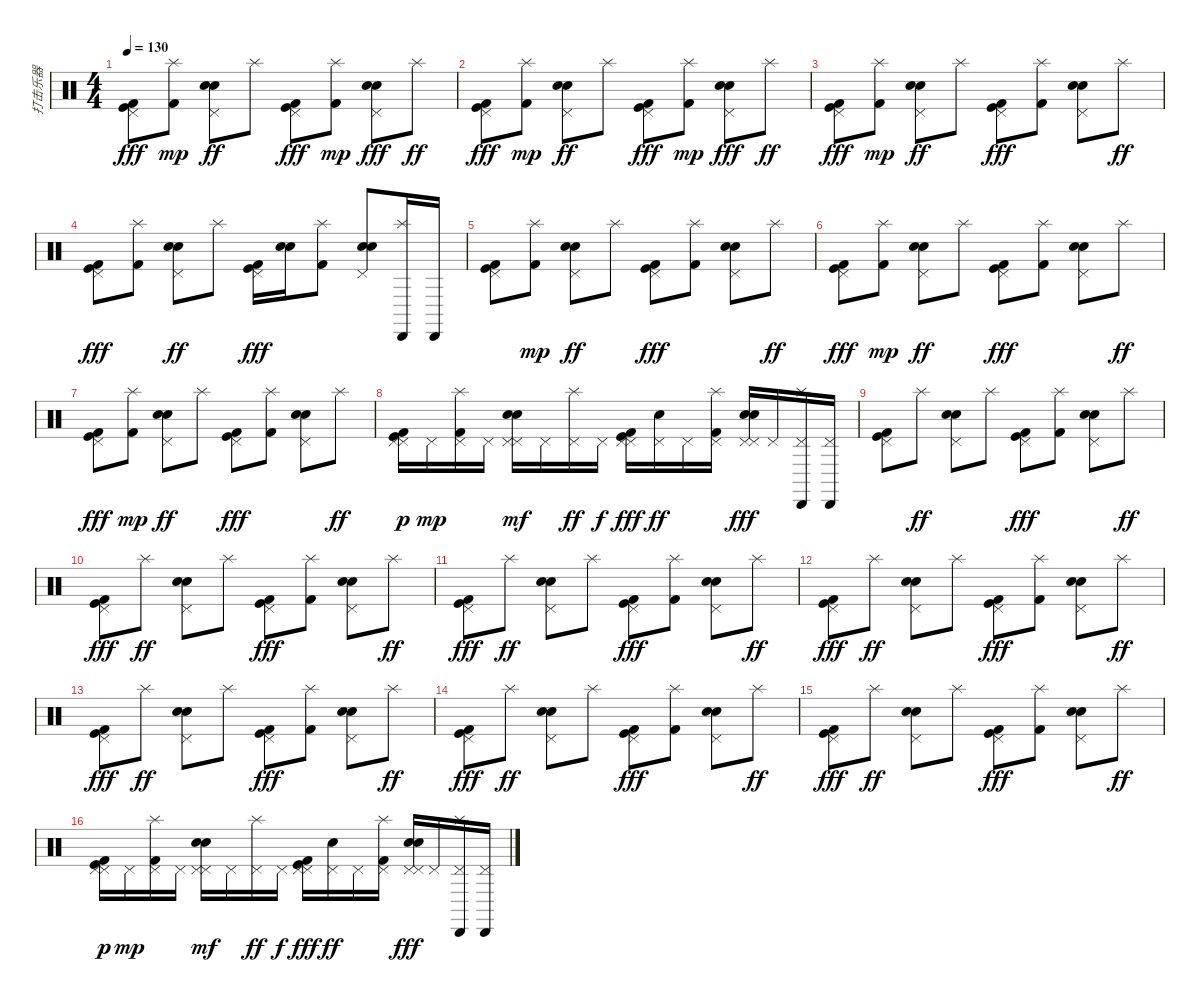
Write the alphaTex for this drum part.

\track ("打击乐器" "打击乐器") {instrument percussion}
\staff {score}
\articulation defaults
\ts (4 4)
\tempo 130
\clef neutral
\ks c
("Pedal Hi-Hat (hit)" "Kick (hit)" "Kick (hit) 2").8{dy fff} ("Splash (hit)" "Kick (hit) 2").8{dy mp} ("Pedal Hi-Hat (hit)" "Electric Snare (hit)" "Snare (hit) 2").8{dy ff} "Splash (hit)".8 ("Pedal Hi-Hat (hit)" "Kick (hit)" "Kick (hit) 2").8{dy fff} ("Splash (hit)" "Kick (hit) 2").8{dy mp} ("Pedal Hi-Hat (hit)" "Electric Snare (hit)" "Snare (hit) 2").8{dy fff} "Splash (hit)".8{dy ff} |
("Pedal Hi-Hat (hit)" "Kick (hit)" "Kick (hit) 2").8{dy fff} ("Splash (hit)" "Kick (hit) 2").8{dy mp} ("Pedal Hi-Hat (hit)" "Electric Snare (hit)" "Snare (hit) 2").8{dy ff} "Splash (hit)".8 ("Pedal Hi-Hat (hit)" "Kick (hit)" "Kick (hit) 2").8{dy fff} ("Splash (hit)" "Kick (hit) 2").8{dy mp} ("Pedal Hi-Hat (hit)" "Electric Snare (hit)" "Snare (hit) 2").8{dy fff} "Splash (hit)".8{dy ff} |
("Pedal Hi-Hat (hit)" "Kick (hit)" "Kick (hit) 2").8{dy fff} ("Splash (hit)" "Kick (hit) 2").8{dy mp} ("Pedal Hi-Hat (hit)" "Electric Snare (hit)" "Snare (hit) 2").8{dy ff} "Splash (hit)".8 ("Pedal Hi-Hat (hit)" "Kick (hit)" "Kick (hit) 2").8{dy fff} ("Splash (hit)" "Kick (hit) 2").8 ("Pedal Hi-Hat (hit)" "Electric Snare (hit)" "Snare (hit) 2").8 "Splash (hit)".8{dy ff} |
("Pedal Hi-Hat (hit)" "Kick (hit)" "Kick (hit) 2").8{dy fff} ("Splash (hit)" "Kick (hit) 2").8 ("Pedal Hi-Hat (hit)" "Electric Snare (hit)" "Snare (hit) 2").8{dy ff} "Splash (hit)".8 ("Pedal Hi-Hat (hit)" "Kick (hit)" "Kick (hit) 2").16{dy fff} ("Electric Snare (hit)" "Snare (hit) 2").16 ("Splash (hit)" "Kick (hit) 2").8 ("Pedal Hi-Hat (hit)" "Electric Snare (hit)" "Snare (hit) 2").8 ("Splash (hit)" "Cabasa (hit)").16 "Cabasa (hit)".16 |
("Pedal Hi-Hat (hit)" "Kick (hit)" "Kick (hit) 2").8 ("Splash (hit)" "Kick (hit) 2").8{dy mp} ("Pedal Hi-Hat (hit)" "Electric Snare (hit)" "Snare (hit) 2").8{dy ff} "Splash (hit)".8 ("Pedal Hi-Hat (hit)" "Kick (hit)" "Kick (hit) 2").8{dy fff} ("Splash (hit)" "Kick (hit) 2").8 ("Pedal Hi-Hat (hit)" "Electric Snare (hit)" "Snare (hit) 2").8 "Splash (hit)".8{dy ff} |
("Pedal Hi-Hat (hit)" "Kick (hit)" "Kick (hit) 2").8{dy fff} ("Splash (hit)" "Kick (hit) 2").8{dy mp} ("Pedal Hi-Hat (hit)" "Electric Snare (hit)" "Snare (hit) 2").8{dy ff} "Splash (hit)".8 ("Pedal Hi-Hat (hit)" "Kick (hit)" "Kick (hit) 2").8{dy fff} ("Splash (hit)" "Kick (hit) 2").8 ("Pedal Hi-Hat (hit)" "Electric Snare (hit)" "Snare (hit) 2").8 "Splash (hit)".8{dy ff} |
("Pedal Hi-Hat (hit)" "Kick (hit)" "Kick (hit) 2").8{dy fff} ("Splash (hit)" "Kick (hit) 2").8{dy mp} ("Pedal Hi-Hat (hit)" "Electric Snare (hit)" "Snare (hit) 2").8{dy ff} "Splash (hit)".8 ("Pedal Hi-Hat (hit)" "Kick (hit)" "Kick (hit) 2").8{dy fff} ("Splash (hit)" "Kick (hit) 2").8 ("Pedal Hi-Hat (hit)" "Electric Snare (hit)" "Snare (hit) 2").8 "Splash (hit)".8{dy ff} |
("Pedal Hi-Hat (hit)" "Kick (hit)" "Kick (hit) 2" "Pedal Hi-Hat (hit)").16{dy p} "Pedal Hi-Hat (hit)".16{dy mp} ("Splash (hit)" "Kick (hit) 2" "Pedal Hi-Hat (hit)").16 "Pedal Hi-Hat (hit)".16 ("Pedal Hi-Hat (hit)" "Electric Snare (hit)" "Snare (hit) 2" "Pedal Hi-Hat (hit)").16{dy mf} "Pedal Hi-Hat (hit)".16 ("Splash (hit)" "Pedal Hi-Hat (hit)").16{dy ff} "Pedal Hi-Hat (hit)".16{dy f} ("Pedal Hi-Hat (hit)" "Kick (hit)" "Kick (hit) 2" "Pedal Hi-Hat (hit)").16{dy fff} ("Electric Snare (hit)" "Pedal Hi-Hat (hit)").16{dy ff} "Pedal Hi-Hat (hit)".16 ("Splash (hit)" "Kick (hit) 2" "Pedal Hi-Hat (hit)").16 ("Pedal Hi-Hat (hit)" "Electric Snare (hit)" "Snare (hit) 2" "Pedal Hi-Hat (hit)").16{dy fff} "Pedal Hi-Hat (hit)".16 ("Splash (hit)" "Cabasa (hit)" "Pedal Hi-Hat (hit)").16 ("Cabasa (hit)" "Pedal Hi-Hat (hit)").16 |
("Pedal Hi-Hat (hit)" "Kick (hit)" "Kick (hit) 2").8 "Splash (hit)".8{dy ff} ("Pedal Hi-Hat (hit)" "Electric Snare (hit)" "Snare (hit) 2").8 "Splash (hit)".8 ("Pedal Hi-Hat (hit)" "Kick (hit)" "Kick (hit) 2").8{dy fff} ("Splash (hit)" "Kick (hit) 2").8 ("Pedal Hi-Hat (hit)" "Electric Snare (hit)" "Snare (hit) 2").8 "Splash (hit)".8{dy ff} |
("Pedal Hi-Hat (hit)" "Kick (hit)" "Kick (hit) 2").8{dy fff} "Splash (hit)".8{dy ff} ("Pedal Hi-Hat (hit)" "Electric Snare (hit)" "Snare (hit) 2").8 "Splash (hit)".8 ("Pedal Hi-Hat (hit)" "Kick (hit)" "Kick (hit) 2").8{dy fff} ("Splash (hit)" "Kick (hit) 2").8 ("Pedal Hi-Hat (hit)" "Electric Snare (hit)" "Snare (hit) 2").8 "Splash (hit)".8{dy ff} |
("Pedal Hi-Hat (hit)" "Kick (hit)" "Kick (hit) 2").8{dy fff} "Splash (hit)".8{dy ff} ("Pedal Hi-Hat (hit)" "Electric Snare (hit)" "Snare (hit) 2").8 "Splash (hit)".8 ("Pedal Hi-Hat (hit)" "Kick (hit)" "Kick (hit) 2").8{dy fff} ("Splash (hit)" "Kick (hit) 2").8 ("Pedal Hi-Hat (hit)" "Electric Snare (hit)" "Snare (hit) 2").8 "Splash (hit)".8{dy ff} |
("Pedal Hi-Hat (hit)" "Kick (hit)" "Kick (hit) 2").8{dy fff} "Splash (hit)".8{dy ff} ("Pedal Hi-Hat (hit)" "Electric Snare (hit)" "Snare (hit) 2").8 "Splash (hit)".8 ("Pedal Hi-Hat (hit)" "Kick (hit)" "Kick (hit) 2").8{dy fff} ("Splash (hit)" "Kick (hit) 2").8 ("Pedal Hi-Hat (hit)" "Electric Snare (hit)" "Snare (hit) 2").8 "Splash (hit)".8{dy ff} |
("Pedal Hi-Hat (hit)" "Kick (hit)" "Kick (hit) 2").8{dy fff} "Splash (hit)".8{dy ff} ("Pedal Hi-Hat (hit)" "Electric Snare (hit)" "Snare (hit) 2").8 "Splash (hit)".8 ("Pedal Hi-Hat (hit)" "Kick (hit)" "Kick (hit) 2").8{dy fff} ("Splash (hit)" "Kick (hit) 2").8 ("Pedal Hi-Hat (hit)" "Electric Snare (hit)" "Snare (hit) 2").8 "Splash (hit)".8{dy ff} |
("Pedal Hi-Hat (hit)" "Kick (hit)" "Kick (hit) 2").8{dy fff} "Splash (hit)".8{dy ff} ("Pedal Hi-Hat (hit)" "Electric Snare (hit)" "Snare (hit) 2").8 "Splash (hit)".8 ("Pedal Hi-Hat (hit)" "Kick (hit)" "Kick (hit) 2").8{dy fff} ("Splash (hit)" "Kick (hit) 2").8 ("Pedal Hi-Hat (hit)" "Electric Snare (hit)" "Snare (hit) 2").8 "Splash (hit)".8{dy ff} |
("Pedal Hi-Hat (hit)" "Kick (hit)" "Kick (hit) 2").8{dy fff} "Splash (hit)".8{dy ff} ("Pedal Hi-Hat (hit)" "Electric Snare (hit)" "Snare (hit) 2").8 "Splash (hit)".8 ("Pedal Hi-Hat (hit)" "Kick (hit)" "Kick (hit) 2").8{dy fff} ("Splash (hit)" "Kick (hit) 2").8 ("Pedal Hi-Hat (hit)" "Electric Snare (hit)" "Snare (hit) 2").8 "Splash (hit)".8{dy ff} |
("Pedal Hi-Hat (hit)" "Kick (hit)" "Kick (hit) 2" "Pedal Hi-Hat (hit)").16{dy p} "Pedal Hi-Hat (hit)".16{dy mp} ("Splash (hit)" "Kick (hit) 2" "Pedal Hi-Hat (hit)").16 "Pedal Hi-Hat (hit)".16 ("Pedal Hi-Hat (hit)" "Electric Snare (hit)" "Snare (hit) 2" "Pedal Hi-Hat (hit)").16{dy mf} "Pedal Hi-Hat (hit)".16 ("Splash (hit)" "Pedal Hi-Hat (hit)").16{dy ff} "Pedal Hi-Hat (hit)".16{dy f} ("Pedal Hi-Hat (hit)" "Kick (hit)" "Kick (hit) 2" "Pedal Hi-Hat (hit)").16{dy fff} ("Electric Snare (hit)" "Pedal Hi-Hat (hit)").16{dy ff} "Pedal Hi-Hat (hit)".16 ("Splash (hit)" "Kick (hit) 2" "Pedal Hi-Hat (hit)").16 ("Pedal Hi-Hat (hit)" "Electric Snare (hit)" "Snare (hit) 2" "Pedal Hi-Hat (hit)").16{dy fff} "Pedal Hi-Hat (hit)".16 ("Splash (hit)" "Cabasa (hit)" "Pedal Hi-Hat (hit)").16 ("Cabasa (hit)" "Pedal Hi-Hat (hit)").16
